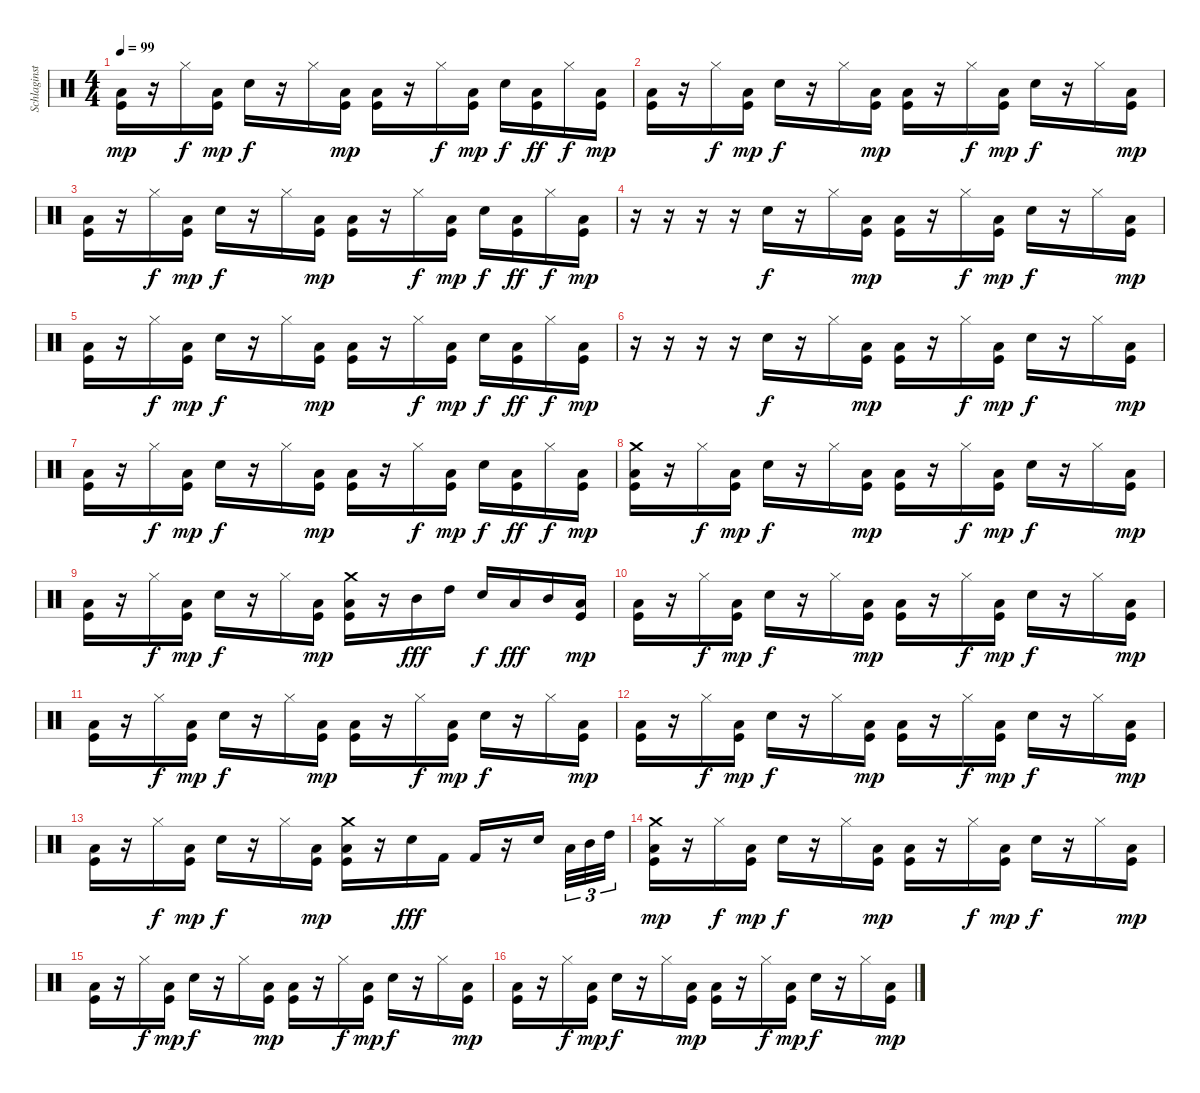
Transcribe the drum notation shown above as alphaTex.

\track ("Schlaginstrumente - Auswahl" "Schlaginst") {instrument percussion}
\staff {score}
\articulation defaults
\ts (4 4)
\tempo 99
\clef neutral
\ks c
("Low Floor Tom (hit)" "Kick (hit)").16{dy mp} r.16 "Hi-Hat (closed)".16{dy f} ("Low Floor Tom (hit)" "Kick (hit)").16{dy mp} "Snare (hit) 2".16{dy f} r.16 "Hi-Hat (closed)".16 ("Low Floor Tom (hit)" "Kick (hit)").16{dy mp} ("Low Floor Tom (hit)" "Kick (hit)").16 r.16 "Hi-Hat (closed)".16{dy f} ("Low Floor Tom (hit)" "Kick (hit)").16{dy mp} "Snare (hit) 2".16{dy f} ("Low Floor Tom (hit)" "Kick (hit)").16{dy ff} "Hi-Hat (closed)".16{dy f} ("Low Floor Tom (hit)" "Kick (hit)").16{dy mp} |
("Low Floor Tom (hit)" "Kick (hit)").16 r.16 "Hi-Hat (closed)".16{dy f} ("Low Floor Tom (hit)" "Kick (hit)").16{dy mp} "Snare (hit) 2".16{dy f} r.16 "Hi-Hat (closed)".16 ("Low Floor Tom (hit)" "Kick (hit)").16{dy mp} ("Low Floor Tom (hit)" "Kick (hit)").16 r.16 "Hi-Hat (closed)".16{dy f} ("Low Floor Tom (hit)" "Kick (hit)").16{dy mp} "Snare (hit) 2".16{dy f} r.16 "Hi-Hat (closed)".16 ("Low Floor Tom (hit)" "Kick (hit)").16{dy mp} |
("Low Floor Tom (hit)" "Kick (hit)").16 r.16 "Hi-Hat (closed)".16{dy f} ("Low Floor Tom (hit)" "Kick (hit)").16{dy mp} "Snare (hit) 2".16{dy f} r.16 "Hi-Hat (closed)".16 ("Low Floor Tom (hit)" "Kick (hit)").16{dy mp} ("Low Floor Tom (hit)" "Kick (hit)").16 r.16 "Hi-Hat (closed)".16{dy f} ("Low Floor Tom (hit)" "Kick (hit)").16{dy mp} "Snare (hit) 2".16{dy f} ("Low Floor Tom (hit)" "Kick (hit)").16{dy ff} "Hi-Hat (closed)".16{dy f} ("Low Floor Tom (hit)" "Kick (hit)").16{dy mp} |
r.16 r.16 r.16 r.16 "Snare (hit) 2".16{dy f} r.16 "Hi-Hat (closed)".16 ("Low Floor Tom (hit)" "Kick (hit)").16{dy mp} ("Low Floor Tom (hit)" "Kick (hit)").16 r.16 "Hi-Hat (closed)".16{dy f} ("Low Floor Tom (hit)" "Kick (hit)").16{dy mp} "Snare (hit) 2".16{dy f} r.16 "Hi-Hat (closed)".16 ("Low Floor Tom (hit)" "Kick (hit)").16{dy mp} |
("Low Floor Tom (hit)" "Kick (hit)").16 r.16 "Hi-Hat (closed)".16{dy f} ("Low Floor Tom (hit)" "Kick (hit)").16{dy mp} "Snare (hit) 2".16{dy f} r.16 "Hi-Hat (closed)".16 ("Low Floor Tom (hit)" "Kick (hit)").16{dy mp} ("Low Floor Tom (hit)" "Kick (hit)").16 r.16 "Hi-Hat (closed)".16{dy f} ("Low Floor Tom (hit)" "Kick (hit)").16{dy mp} "Snare (hit) 2".16{dy f} ("Low Floor Tom (hit)" "Kick (hit)").16{dy ff} "Hi-Hat (closed)".16{dy f} ("Low Floor Tom (hit)" "Kick (hit)").16{dy mp} |
r.16 r.16 r.16 r.16 "Snare (hit) 2".16{dy f} r.16 "Hi-Hat (closed)".16 ("Low Floor Tom (hit)" "Kick (hit)").16{dy mp} ("Low Floor Tom (hit)" "Kick (hit)").16 r.16 "Hi-Hat (closed)".16{dy f} ("Low Floor Tom (hit)" "Kick (hit)").16{dy mp} "Snare (hit) 2".16{dy f} r.16 "Hi-Hat (closed)".16 ("Low Floor Tom (hit)" "Kick (hit)").16{dy mp} |
("Low Floor Tom (hit)" "Kick (hit)").16 r.16 "Hi-Hat (closed)".16{dy f} ("Low Floor Tom (hit)" "Kick (hit)").16{dy mp} "Snare (hit) 2".16{dy f} r.16 "Hi-Hat (closed)".16 ("Low Floor Tom (hit)" "Kick (hit)").16{dy mp} ("Low Floor Tom (hit)" "Kick (hit)").16 r.16 "Hi-Hat (closed)".16{dy f} ("Low Floor Tom (hit)" "Kick (hit)").16{dy mp} "Snare (hit) 2".16{dy f} ("Low Floor Tom (hit)" "Kick (hit)").16{dy ff} "Hi-Hat (closed)".16{dy f} ("Low Floor Tom (hit)" "Kick (hit)").16{dy mp} |
("Crash medium (hit)" "Low Floor Tom (hit)" "Kick (hit)").16 r.16 "Hi-Hat (closed)".16{dy f} ("Low Floor Tom (hit)" "Kick (hit)").16{dy mp} "Snare (hit) 2".16{dy f} r.16 "Hi-Hat (closed)".16 ("Low Floor Tom (hit)" "Kick (hit)").16{dy mp} ("Low Floor Tom (hit)" "Kick (hit)").16 r.16 "Hi-Hat (closed)".16{dy f} ("Low Floor Tom (hit)" "Kick (hit)").16{dy mp} "Snare (hit) 2".16{dy f} r.16 "Hi-Hat (closed)".16 ("Low Floor Tom (hit)" "Kick (hit)").16{dy mp} |
("Low Floor Tom (hit)" "Kick (hit)").16 r.16 "Hi-Hat (closed)".16{dy f} ("Low Floor Tom (hit)" "Kick (hit)").16{dy mp} "Snare (hit) 2".16{dy f} r.16 "Hi-Hat (closed)".16 ("Low Floor Tom (hit)" "Kick (hit)").16{dy mp} ("Crash medium (hit)" "Low Floor Tom (hit)" "Kick (hit)").16 r.16 "Mid Tom (hit)".16{dy fff} "High Tom (hit)".16 "Snare (hit) 2".16{dy f} "Low Tom (hit)".16{dy fff} "Mid Tom (hit)".16 ("Low Floor Tom (hit)" "Kick (hit)").16{dy mp} |
("Low Floor Tom (hit)" "Kick (hit)").16 r.16 "Hi-Hat (closed)".16{dy f} ("Low Floor Tom (hit)" "Kick (hit)").16{dy mp} "Snare (hit) 2".16{dy f} r.16 "Hi-Hat (closed)".16 ("Low Floor Tom (hit)" "Kick (hit)").16{dy mp} ("Low Floor Tom (hit)" "Kick (hit)").16 r.16 "Hi-Hat (closed)".16{dy f} ("Low Floor Tom (hit)" "Kick (hit)").16{dy mp} "Snare (hit) 2".16{dy f} r.16 "Hi-Hat (closed)".16 ("Low Floor Tom (hit)" "Kick (hit)").16{dy mp} |
("Low Floor Tom (hit)" "Kick (hit)").16 r.16 "Hi-Hat (closed)".16{dy f} ("Low Floor Tom (hit)" "Kick (hit)").16{dy mp} "Snare (hit) 2".16{dy f} r.16 "Hi-Hat (closed)".16 ("Low Floor Tom (hit)" "Kick (hit)").16{dy mp} ("Low Floor Tom (hit)" "Kick (hit)").16 r.16 "Hi-Hat (closed)".16{dy f} ("Low Floor Tom (hit)" "Kick (hit)").16{dy mp} "Snare (hit) 2".16{dy f} r.16 "Hi-Hat (closed)".16 ("Low Floor Tom (hit)" "Kick (hit)").16{dy mp} |
("Low Floor Tom (hit)" "Kick (hit)").16 r.16 "Hi-Hat (closed)".16{dy f} ("Low Floor Tom (hit)" "Kick (hit)").16{dy mp} "Snare (hit) 2".16{dy f} r.16 "Hi-Hat (closed)".16 ("Low Floor Tom (hit)" "Kick (hit)").16{dy mp} ("Low Floor Tom (hit)" "Kick (hit)").16 r.16 "Hi-Hat (closed)".16{dy f} ("Low Floor Tom (hit)" "Kick (hit)").16{dy mp} "Snare (hit) 2".16{dy f} r.16 "Hi-Hat (closed)".16 ("Low Floor Tom (hit)" "Kick (hit)").16{dy mp} |
("Low Floor Tom (hit)" "Kick (hit)").16 r.16 "Hi-Hat (closed)".16{dy f} ("Low Floor Tom (hit)" "Kick (hit)").16{dy mp} "Snare (hit) 2".16{dy f} r.16 "Hi-Hat (closed)".16 ("Low Floor Tom (hit)" "Kick (hit)").16{dy mp} ("Crash medium (hit)" "Low Floor Tom (hit)" "Kick (hit)").16 r.16 "Snare (hit) 2".16{dy fff} "Kick (hit) 2".16 "Kick (hit) 2".16 r.16 "Snare (hit) 2".16{beam splitsecondary} "Low Tom (hit)".32{tu (3 2)} "Mid Tom (hit)".32{tu (3 2)} "High Tom (hit)".32{tu (3 2)} |
("Crash medium (hit)" "Low Floor Tom (hit)" "Kick (hit)").16{dy mp} r.16 "Hi-Hat (closed)".16{dy f} ("Low Floor Tom (hit)" "Kick (hit)").16{dy mp} "Snare (hit) 2".16{dy f} r.16 "Hi-Hat (closed)".16 ("Low Floor Tom (hit)" "Kick (hit)").16{dy mp} ("Low Floor Tom (hit)" "Kick (hit)").16 r.16 "Hi-Hat (closed)".16{dy f} ("Low Floor Tom (hit)" "Kick (hit)").16{dy mp} "Snare (hit) 2".16{dy f} r.16 "Hi-Hat (closed)".16 ("Low Floor Tom (hit)" "Kick (hit)").16{dy mp} |
("Low Floor Tom (hit)" "Kick (hit)").16 r.16 "Hi-Hat (closed)".16{dy f} ("Low Floor Tom (hit)" "Kick (hit)").16{dy mp} "Snare (hit) 2".16{dy f} r.16 "Hi-Hat (closed)".16 ("Low Floor Tom (hit)" "Kick (hit)").16{dy mp} ("Low Floor Tom (hit)" "Kick (hit)").16 r.16 "Hi-Hat (closed)".16{dy f} ("Low Floor Tom (hit)" "Kick (hit)").16{dy mp} "Snare (hit) 2".16{dy f} r.16 "Hi-Hat (closed)".16 ("Low Floor Tom (hit)" "Kick (hit)").16{dy mp} |
("Low Floor Tom (hit)" "Kick (hit)").16 r.16 "Hi-Hat (closed)".16{dy f} ("Low Floor Tom (hit)" "Kick (hit)").16{dy mp} "Snare (hit) 2".16{dy f} r.16 "Hi-Hat (closed)".16 ("Low Floor Tom (hit)" "Kick (hit)").16{dy mp} ("Low Floor Tom (hit)" "Kick (hit)").16 r.16 "Hi-Hat (closed)".16{dy f} ("Low Floor Tom (hit)" "Kick (hit)").16{dy mp} "Snare (hit) 2".16{dy f} r.16 "Hi-Hat (closed)".16 ("Low Floor Tom (hit)" "Kick (hit)").16{dy mp}
